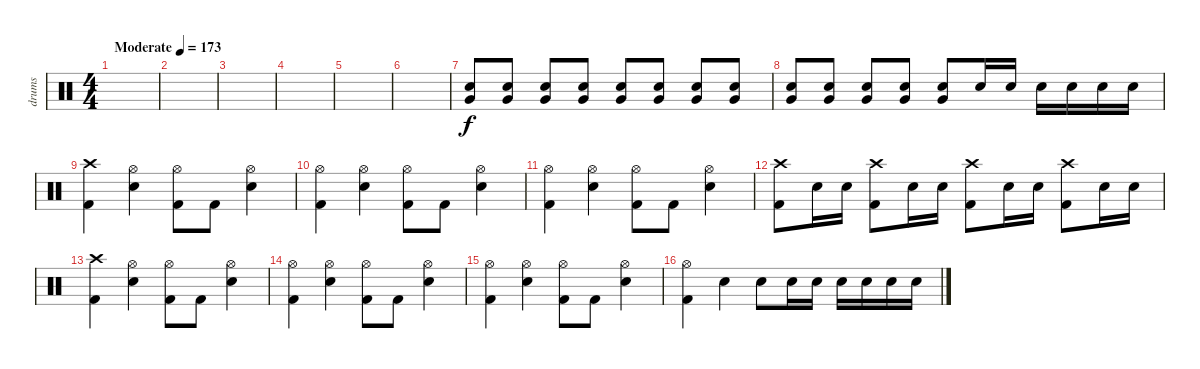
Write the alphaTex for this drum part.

\track ("drums" "drums") {instrument percussion}
\staff {score}
\articulation defaults
\ts (4 4)
\tempo (173 "Moderate")
\clef neutral
\ks c
|
|
|
|
|
|
("Electric Snare (hit)" "Very Low Tom (hit)").8 ("Electric Snare (hit)" "Very Low Tom (hit)").8 ("Electric Snare (hit)" "Very Low Tom (hit)").8 ("Electric Snare (hit)" "Very Low Tom (hit)").8 ("Electric Snare (hit)" "Very Low Tom (hit)").8 ("Electric Snare (hit)" "Very Low Tom (hit)").8 ("Electric Snare (hit)" "Very Low Tom (hit)").8 ("Electric Snare (hit)" "Very Low Tom (hit)").8 |
("Electric Snare (hit)" "Very Low Tom (hit)").8 ("Electric Snare (hit)" "Very Low Tom (hit)").8 ("Electric Snare (hit)" "Very Low Tom (hit)").8 ("Electric Snare (hit)" "Very Low Tom (hit)").8 ("Electric Snare (hit)" "Very Low Tom (hit)").8 "Electric Snare (hit)".16 "Electric Snare (hit)".16 "Electric Snare (hit)".16 "Electric Snare (hit)".16 "Electric Snare (hit)".16 "Electric Snare (hit)".16 |
("Crash high (hit)" "Kick (hit) 2").4 ("Hi-Hat (open)" "Electric Snare (hit)").4 ("Hi-Hat (open)" "Kick (hit) 2").8 "Kick (hit) 2".8 ("Hi-Hat (open)" "Electric Snare (hit)").4 |
("Hi-Hat (open)" "Kick (hit) 2").4 ("Hi-Hat (open)" "Electric Snare (hit)").4 ("Hi-Hat (open)" "Kick (hit) 2").8 "Kick (hit) 2".8 ("Hi-Hat (open)" "Electric Snare (hit)").4 |
("Hi-Hat (open)" "Kick (hit) 2").4 ("Hi-Hat (open)" "Electric Snare (hit)").4 ("Hi-Hat (open)" "Kick (hit) 2").8 "Kick (hit) 2".8 ("Hi-Hat (open)" "Electric Snare (hit)").4 |
("Crash high (hit)" "Kick (hit) 2").8 "Electric Snare (hit)".16 "Electric Snare (hit)".16 ("Crash high (hit)" "Kick (hit) 2").8 "Electric Snare (hit)".16 "Electric Snare (hit)".16 ("Crash high (hit)" "Kick (hit) 2").8 "Electric Snare (hit)".16 "Electric Snare (hit)".16 ("Crash high (hit)" "Kick (hit) 2").8 "Electric Snare (hit)".16 "Electric Snare (hit)".16 |
("Crash high (hit)" "Kick (hit) 2").4 ("Hi-Hat (open)" "Electric Snare (hit)").4 ("Hi-Hat (open)" "Kick (hit) 2").8 "Kick (hit) 2".8 ("Hi-Hat (open)" "Electric Snare (hit)").4 |
("Hi-Hat (open)" "Kick (hit) 2").4 ("Hi-Hat (open)" "Electric Snare (hit)").4 ("Hi-Hat (open)" "Kick (hit) 2").8 "Kick (hit) 2".8 ("Hi-Hat (open)" "Electric Snare (hit)").4 |
("Hi-Hat (open)" "Kick (hit) 2").4 ("Hi-Hat (open)" "Electric Snare (hit)").4 ("Hi-Hat (open)" "Kick (hit) 2").8 "Kick (hit) 2".8 ("Hi-Hat (open)" "Electric Snare (hit)").4 |
("Hi-Hat (open)" "Kick (hit) 2").4 "Electric Snare (hit)".4 "Electric Snare (hit)".8 "Electric Snare (hit)".16 "Electric Snare (hit)".16 "Electric Snare (hit)".16 "Electric Snare (hit)".16 "Electric Snare (hit)".16 "Electric Snare (hit)".16
